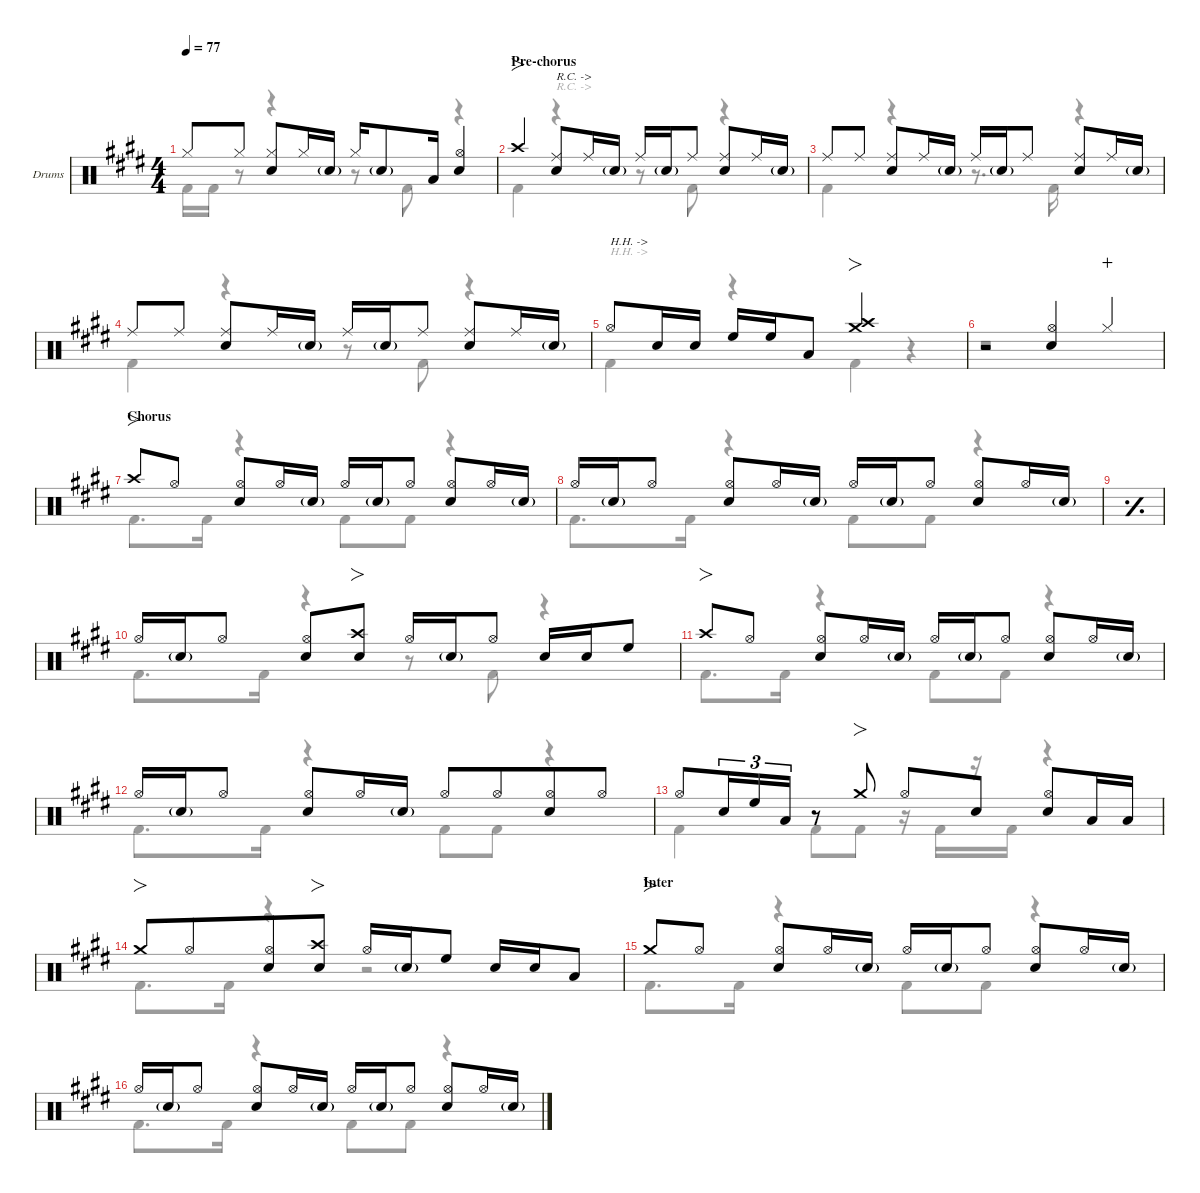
\defaultSystemsLayout 4
\hideDynamics
\bracketExtendMode nobrackets
\firstSystemTrackNameOrientation horizontal
\track ("Drums" "Drums") {defaultSystemsLayout 4 instrument percussion}
\staff {score}
\articulation defaults
\voice
\ts (4 4)
\tempo 77
\clef neutral
\ks e "Hi-Hat (closed)"{acc forcenatural}.8{dy f} "Hi-Hat (closed)"{acc forcenatural}.8{dy mp beam split}
("Snare (hit) 2"{acc forcenatural} "Hi-Hat (closed)"{acc forcenatural}).8{dy f} "Hi-Hat (closed)"{acc forcenatural}.16{dy mp} "Snare (hit) 2"{g acc forcenatural}.16{dy mf} "Hi-Hat (closed)"{acc forcenatural}.16{dy f} "Snare (hit) 2"{g acc forcenatural}.8{dy mf} "Low Tom (hit)"{acc forcenatural}.16{beam split} ("Snare (hit) 2"{acc forcenatural} "Hi-Hat (open)"{acc forcenatural}).4{dy f} |
\section ("" "Pre-chorus")
"Crash high (hit)"{acc forcenatural}.4{fo} ("Ride (middle)"{acc forcenatural} "Snare (hit) 2"{acc forcenatural}).8{txt "R.C. ->"} "Ride (middle)"{acc forcenatural}.16{dy mf} "Snare (hit) 2"{g acc forcenatural}.16 "Ride (middle)"{acc forcenatural}.16{dy f} "Snare (hit) 2"{g acc forcenatural}.16{dy mf} "Ride (middle)"{acc forcenatural}.8 ("Ride (middle)"{acc forcenatural} "Snare (hit) 2"{acc forcenatural}).8{dy f} "Ride (middle)"{acc forcenatural}.16{dy mf} "Snare (hit) 2"{g acc forcenatural}.16 |
"Ride (middle)"{acc forcenatural}.8{dy f} "Ride (middle)"{acc forcenatural}.8{dy mf} ("Ride (middle)"{acc forcenatural} "Snare (hit) 2"{acc forcenatural}).8{dy f} "Ride (middle)"{acc forcenatural}.16{dy mf} "Snare (hit) 2"{g acc forcenatural}.16 "Ride (middle)"{acc forcenatural}.16{dy f} "Snare (hit) 2"{g acc forcenatural}.16{dy mf} "Ride (middle)"{acc forcenatural}.8 ("Ride (middle)"{acc forcenatural} "Snare (hit) 2"{acc forcenatural}).8{dy f} "Ride (middle)"{acc forcenatural}.16{dy mf} "Snare (hit) 2"{g acc forcenatural}.16 |
"Ride (middle)"{acc forcenatural}.8{dy f} "Ride (middle)"{acc forcenatural}.8{dy mf} ("Ride (middle)"{acc forcenatural} "Snare (hit) 2"{acc forcenatural}).8{dy f} "Ride (middle)"{acc forcenatural}.16{dy mf} "Snare (hit) 2"{g acc forcenatural}.16 "Ride (middle)"{acc forcenatural}.16{dy f} "Snare (hit) 2"{g acc forcenatural}.16{dy mf} "Ride (middle)"{acc forcenatural}.8 ("Ride (middle)"{acc forcenatural} "Snare (hit) 2"{acc forcenatural}).8{dy f} "Ride (middle)"{acc forcenatural}.16{dy mf} "Snare (hit) 2"{g acc forcenatural}.16 |
"Hi-Hat (open)"{acc forcenatural}.8{txt "H.H. ->" dy f} "Snare (hit) 2"{acc forcenatural}.16 "Snare (hit) 2"{acc forcenatural}.16{dy mf} "High Floor Tom (hit)"{acc forcenatural}.16{dy f} "High Floor Tom (hit)"{acc forcenatural}.16 "Low Tom (hit)"{acc forcenatural}.8 ("Crash high (hit)"{acc forcenatural} "Crash medium (hit)"{acc forcenatural}).2{fo} |
r.2 ("Hi-Hat (open)"{acc forcenatural} "Snare (hit) 2"{acc forcenatural}).4 "Hi-Hat (closed)"{acc forcenatural}.4{dy mp wahc} |
\section ("" "Chorus")
"Crash high (hit)"{acc forcenatural}.8{fo dy f} "Hi-Hat (open)"{acc forcenatural}.8{dy mf} ("Hi-Hat (open)"{acc forcenatural} "Snare (hit) 2"{acc forcenatural}).8{dy f} "Hi-Hat (open)"{acc forcenatural}.16{dy mf} "Snare (hit) 2"{g acc forcenatural}.16 "Hi-Hat (open)"{acc forcenatural}.16{dy f} "Snare (hit) 2"{g acc forcenatural}.16{dy mf} "Hi-Hat (open)"{acc forcenatural}.8 ("Hi-Hat (open)"{acc forcenatural} "Snare (hit) 2"{acc forcenatural}).8{dy f} "Hi-Hat (open)"{acc forcenatural}.16{dy mf} "Snare (hit) 2"{g acc forcenatural}.16 |
"Hi-Hat (open)"{acc forcenatural}.16{dy f} "Snare (hit) 2"{g acc forcenatural}.16{dy mf} "Hi-Hat (open)"{acc forcenatural}.8 ("Hi-Hat (open)"{acc forcenatural} "Snare (hit) 2"{acc forcenatural}).8{dy f} "Hi-Hat (open)"{acc forcenatural}.16{dy mf} "Snare (hit) 2"{g acc forcenatural}.16 "Hi-Hat (open)"{acc forcenatural}.16{dy f} "Snare (hit) 2"{g acc forcenatural}.16{dy mf} "Hi-Hat (open)"{acc forcenatural}.8 ("Hi-Hat (open)"{acc forcenatural} "Snare (hit) 2"{acc forcenatural}).8{dy f} "Hi-Hat (open)"{acc forcenatural}.16{dy mf} "Snare (hit) 2"{g acc forcenatural}.16 |
\simile simple
|
\simile none "Hi-Hat (open)"{acc forcenatural}.16{dy f} "Snare (hit) 2"{g acc forcenatural}.16{dy mf} "Hi-Hat (open)"{acc forcenatural}.8
("Hi-Hat (open)"{acc forcenatural} "Snare (hit) 2"{acc forcenatural}).8{dy f} ("Crash high (hit)"{acc forcenatural} "Snare (hit) 2"{acc forcenatural}).8{fo} "Hi-Hat (open)"{acc forcenatural}.16 "Snare (hit) 2"{g acc forcenatural}.16{dy mf} "Hi-Hat (open)"{acc forcenatural}.8 "Snare (hit) 2"{acc forcenatural}.16{dy f} "Snare (hit) 2"{acc forcenatural}.16{dy mf} "High Floor Tom (hit)"{acc forcenatural}.8{dy f} |
"Crash high (hit)"{acc forcenatural}.8{fo} "Hi-Hat (open)"{acc forcenatural}.8{dy mf} ("Hi-Hat (open)"{acc forcenatural} "Snare (hit) 2"{acc forcenatural}).8{dy f} "Hi-Hat (open)"{acc forcenatural}.16{dy mf} "Snare (hit) 2"{g acc forcenatural}.16 "Hi-Hat (open)"{acc forcenatural}.16{dy f} "Snare (hit) 2"{g acc forcenatural}.16{dy mf} "Hi-Hat (open)"{acc forcenatural}.8 ("Hi-Hat (open)"{acc forcenatural} "Snare (hit) 2"{acc forcenatural}).8{dy f} "Hi-Hat (open)"{acc forcenatural}.16{dy mf} "Snare (hit) 2"{g acc forcenatural}.16 |
"Hi-Hat (open)"{acc forcenatural}.16{dy f} "Snare (hit) 2"{g acc forcenatural}.16{dy mf} "Hi-Hat (open)"{acc forcenatural}.8 ("Hi-Hat (open)"{acc forcenatural} "Snare (hit) 2"{acc forcenatural}).8{dy f} "Hi-Hat (open)"{acc forcenatural}.16{dy mf} "Snare (hit) 2"{g acc forcenatural}.16 "Hi-Hat (open)"{acc forcenatural}.8{dy f} "Hi-Hat (open)"{acc forcenatural}.8{dy mf beam merge} ("Hi-Hat (open)"{acc forcenatural} "Snare (hit) 2"{acc forcenatural}).8{dy f} "Hi-Hat (open)"{acc forcenatural}.8{dy mf} |
"Hi-Hat (open)"{acc forcenatural}.8{dy f beam merge} "Snare (hit) 2"{acc forcenatural}.16{tu (3 2)} "High Floor Tom (hit)"{acc forcenatural}.16{tu (3 2)} "Low Tom (hit)"{acc forcenatural}.16{tu (3 2)} r.8 "Crash medium (hit)"{acc forcenatural}.8{fo} "Hi-Hat (open)"{acc forcenatural}.8 "Snare (hit) 2"{acc forcenatural}.8 ("Snare (hit) 2"{acc forcenatural} "Hi-Hat (open)"{acc forcenatural}).8 "Low Tom (hit)"{acc forcenatural}.16 "Low Tom (hit)"{acc forcenatural}.16 |
"Crash medium (hit)"{acc forcenatural}.8{fo beam merge} "Hi-Hat (open)"{acc forcenatural}.8{dy mf beam merge} ("Hi-Hat (open)"{acc forcenatural} "Snare (hit) 2"{acc forcenatural}).8{dy f beam merge} ("Crash high (hit)"{acc forcenatural} "Snare (hit) 2"{acc forcenatural}).8{fo} "Hi-Hat (open)"{acc forcenatural}.16 "Snare (hit) 2"{g acc forcenatural}.16{dy mf} "High Floor Tom (hit)"{acc forcenatural}.8{dy f} "Snare (hit) 2"{acc forcenatural}.16 "Snare (hit) 2"{acc forcenatural}.16{dy mf} "Low Tom (hit)"{acc forcenatural}.8{dy f} |
\section ("" "Inter")
"Crash medium (hit)"{acc forcenatural}.8{fo} "Hi-Hat (open)"{acc forcenatural}.8 ("Hi-Hat (open)"{acc forcenatural} "Snare (hit) 2"{acc forcenatural}).8 "Hi-Hat (open)"{acc forcenatural}.16{dy mf} "Snare (hit) 2"{g acc forcenatural}.16 "Hi-Hat (open)"{acc forcenatural}.16{dy f} "Snare (hit) 2"{g acc forcenatural}.16{dy mf} "Hi-Hat (open)"{acc forcenatural}.8 ("Hi-Hat (open)"{acc forcenatural} "Snare (hit) 2"{acc forcenatural}).8{dy f} "Hi-Hat (open)"{acc forcenatural}.16{dy mf} "Snare (hit) 2"{g acc forcenatural}.16 |
"Hi-Hat (open)"{acc forcenatural}.16{dy f} "Snare (hit) 2"{g acc forcenatural}.16{dy mf} "Hi-Hat (open)"{acc forcenatural}.8 ("Hi-Hat (open)"{acc forcenatural} "Snare (hit) 2"{acc forcenatural}).8{dy f} "Hi-Hat (open)"{acc forcenatural}.16{dy mf} "Snare (hit) 2"{g acc forcenatural}.16 "Hi-Hat (open)"{acc forcenatural}.16{dy f} "Snare (hit) 2"{g acc forcenatural}.16{dy mf} "Hi-Hat (open)"{acc forcenatural}.8 ("Hi-Hat (open)"{acc forcenatural} "Snare (hit) 2"{acc forcenatural}).8{dy f} "Hi-Hat (open)"{acc forcenatural}.16{dy mf} "Snare (hit) 2"{g acc forcenatural}.16
\voice
\clef neutral
\ottava regular
\simile none
\ks e "Kick (hit) 2"{acc forcenatural}.16{dy f} "Kick (hit) 2"{acc forcenatural}.16
r.8 r.4 r.8 "Kick (hit) 2"{acc forcenatural}.8 r.4 |
"Kick (hit) 2"{acc forcenatural}.4 r.4{txt "R.C. ->"} r.8 "Kick (hit) 2"{acc forcenatural}.8 r.4 |
"Kick (hit) 2"{acc forcenatural}.4 r.4 r.8{d} "Kick (hit) 2"{acc forcenatural}.16 r.4 |
"Kick (hit) 2"{acc forcenatural}.4 r.4 r.8 "Kick (hit) 2"{acc forcenatural}.8 r.4 |
"Kick (hit) 2"{acc forcenatural}.4{txt "H.H. ->"} r.4 "Kick (hit) 2"{acc forcenatural}.4 r.4 |
r.1 |
"Kick (hit) 2"{acc forcenatural}.8{d} "Kick (hit) 2"{acc forcenatural}.16 r.4 "Kick (hit) 2"{acc forcenatural}.8 "Kick (hit) 2"{acc forcenatural}.8 r.4 |
"Kick (hit) 2"{acc forcenatural}.8{d} "Kick (hit) 2"{acc forcenatural}.16 r.4 "Kick (hit) 2"{acc forcenatural}.8 "Kick (hit) 2"{acc forcenatural}.8 r.4 |
\simile simple
|
\simile none "Kick (hit) 2"{acc forcenatural}.8{d} "Kick (hit) 2"{acc forcenatural}.16
r.4 r.8 "Kick (hit) 2"{acc forcenatural}.8 r.4 |
"Kick (hit) 2"{acc forcenatural}.8{d} "Kick (hit) 2"{acc forcenatural}.16 r.4 "Kick (hit) 2"{acc forcenatural}.8 "Kick (hit) 2"{acc forcenatural}.8 r.4 |
"Kick (hit) 2"{acc forcenatural}.8{d} "Kick (hit) 2"{acc forcenatural}.16 r.4 "Kick (hit) 2"{acc forcenatural}.8 "Kick (hit) 2"{acc forcenatural}.8 r.4 |
"Kick (hit) 2"{acc forcenatural}.4 "Kick (hit) 2"{acc forcenatural}.8 "Kick (hit) 2"{acc forcenatural}.8 r.16 "Kick (hit) 2"{acc forcenatural}.16 r.16 "Kick (hit) 2"{acc forcenatural}.16 r.4 |
"Kick (hit) 2"{acc forcenatural}.8{d} "Kick (hit) 2"{acc forcenatural}.16 r.4 r.2 |
"Kick (hit) 2"{acc forcenatural}.8{d} "Kick (hit) 2"{acc forcenatural}.16 r.4 "Kick (hit) 2"{acc forcenatural}.8 "Kick (hit) 2"{acc forcenatural}.8 r.4 |
"Kick (hit) 2"{acc forcenatural}.8{d} "Kick (hit) 2"{acc forcenatural}.16 r.4 "Kick (hit) 2"{acc forcenatural}.8 "Kick (hit) 2"{acc forcenatural}.8 r.4
